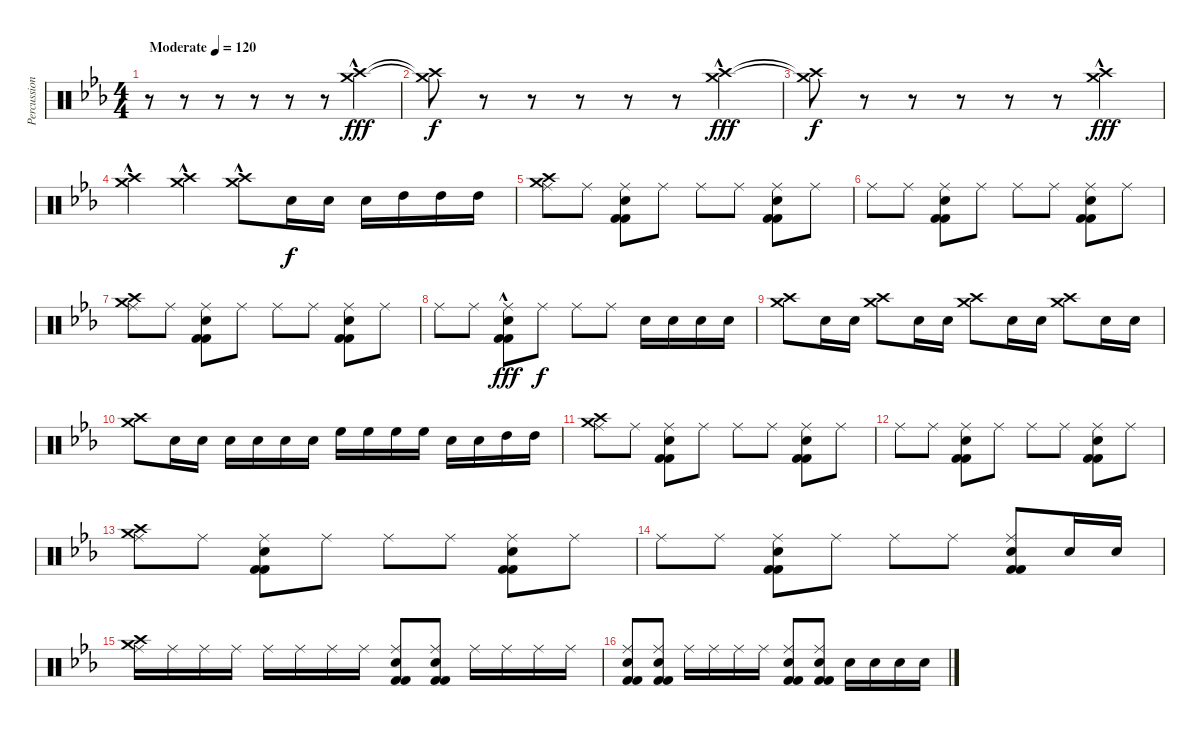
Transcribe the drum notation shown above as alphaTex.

\track ("Percussion" "Percussion") {instrument percussion}
\staff {score}
\articulation defaults
\ts (4 4)
\tempo (120 "Moderate")
\clef neutral
\ks eb
r.8{dy fff} r.8 r.8 r.8 r.8 r.8 ("Crash high (hit)"{hac} "Crash medium (hit)").4 |
("Crash high (hit)"{t} "Crash medium (hit)"{t}).8{dy f} r.8 r.8 r.8 r.8 r.8 ("Crash high (hit)"{hac} "Crash medium (hit)"{hac}).4{dy fff} |
("Crash high (hit)"{t} "Crash medium (hit)"{t}).8{dy f} r.8 r.8 r.8 r.8 r.8 ("Crash high (hit)"{hac} "Crash medium (hit)"{hac}).4{dy fff} |
("Crash high (hit)"{hac} "Crash medium (hit)"{hac}).4 ("Crash high (hit)"{hac} "Crash medium (hit)"{hac}).4 ("Crash high (hit)"{hac} "Crash medium (hit)"{hac}).8 "Electric Snare (hit)".16{dy f} "Electric Snare (hit)".16 "Electric Snare (hit)".16 "High Tom (hit)".16 "High Tom (hit)".16 "High Tom (hit)".16 |
("Crash high (hit)" "Crash medium (hit)" "Ride (middle)").8 "Ride (middle)".8 ("Ride (middle)" "Electric Snare (hit)" "Kick (hit) 2" "Kick (hit) 2").8 "Ride (middle)".8 "Ride (middle)".8 "Ride (middle)".8 ("Ride (middle)" "Electric Snare (hit)" "Kick (hit) 2" "Kick (hit) 2").8 "Ride (middle)".8 |
"Ride (middle)".8 "Ride (middle)".8 ("Ride (middle)" "Electric Snare (hit)" "Kick (hit) 2" "Kick (hit) 2").8 "Ride (middle)".8 "Ride (middle)".8 "Ride (middle)".8 ("Ride (middle)" "Electric Snare (hit)" "Kick (hit) 2" "Kick (hit) 2").8 "Ride (middle)".8 |
("Crash high (hit)" "Crash medium (hit)" "Ride (middle)").8 "Ride (middle)".8 ("Ride (middle)" "Electric Snare (hit)" "Kick (hit) 2" "Kick (hit) 2").8 "Ride (middle)".8 "Ride (middle)".8 "Ride (middle)".8 ("Ride (middle)" "Electric Snare (hit)" "Kick (hit) 2" "Kick (hit) 2").8 "Ride (middle)".8 |
"Ride (middle)".8 "Ride (middle)".8 ("Ride (middle)" "Electric Snare (hit)" "Kick (hit) 2"{hac} "Kick (hit) 2").8{dy fff} "Ride (middle)".8{dy f} "Ride (middle)".8 "Ride (middle)".8 "Electric Snare (hit)".16 "Electric Snare (hit)".16 "Electric Snare (hit)".16 "Electric Snare (hit)".16 |
("Crash high (hit)" "Crash medium (hit)").8 "Electric Snare (hit)".16 "Electric Snare (hit)".16 ("Crash high (hit)" "Crash medium (hit)").8 "Electric Snare (hit)".16 "Electric Snare (hit)".16 ("Crash high (hit)" "Crash medium (hit)").8 "Electric Snare (hit)".16 "Electric Snare (hit)".16 ("Crash high (hit)" "Crash medium (hit)").8 "Electric Snare (hit)".16 "Electric Snare (hit)".16 |
("Crash high (hit)" "Crash medium (hit)").8 "Electric Snare (hit)".16 "Electric Snare (hit)".16 "Electric Snare (hit)".16 "Electric Snare (hit)".16 "Electric Snare (hit)".16 "Electric Snare (hit)".16 "High Floor Tom (hit)".16 "High Floor Tom (hit)".16 "High Floor Tom (hit)".16 "High Floor Tom (hit)".16 "Electric Snare (hit)".16 "Electric Snare (hit)".16 "High Tom (hit)".16 "High Tom (hit)".16 |
("Crash high (hit)" "Crash medium (hit)" "Ride (middle)").8 "Ride (middle)".8 ("Ride (middle)" "Electric Snare (hit)" "Kick (hit) 2" "Kick (hit) 2").8 "Ride (middle)".8 "Ride (middle)".8 "Ride (middle)".8 ("Ride (middle)" "Electric Snare (hit)" "Kick (hit) 2" "Kick (hit) 2").8 "Ride (middle)".8 |
"Ride (middle)".8 "Ride (middle)".8 ("Ride (middle)" "Electric Snare (hit)" "Kick (hit) 2" "Kick (hit) 2").8 "Ride (middle)".8 "Ride (middle)".8 "Ride (middle)".8 ("Ride (middle)" "Electric Snare (hit)" "Kick (hit) 2" "Kick (hit) 2").8 "Ride (middle)".8 |
("Crash high (hit)" "Crash medium (hit)" "Ride (middle)").8 "Ride (middle)".8 ("Ride (middle)" "Electric Snare (hit)" "Kick (hit) 2" "Kick (hit) 2").8 "Ride (middle)".8 "Ride (middle)".8 "Ride (middle)".8 ("Ride (middle)" "Electric Snare (hit)" "Kick (hit) 2" "Kick (hit) 2").8 "Ride (middle)".8 |
"Ride (middle)".8 "Ride (middle)".8 ("Ride (middle)" "Electric Snare (hit)" "Kick (hit) 2" "Kick (hit) 2").8 "Ride (middle)".8 "Ride (middle)".8 "Ride (middle)".8 ("Ride (middle)" "Electric Snare (hit)" "Kick (hit) 2" "Kick (hit) 2").8 "Electric Snare (hit)".16 "Electric Snare (hit)".16 |
("Crash high (hit)" "Crash medium (hit)" "Ride (middle)").16 "Ride (middle)".16 "Ride (middle)".16 "Ride (middle)".16 "Ride (middle)".16 "Ride (middle)".16 "Ride (middle)".16 "Ride (middle)".16 ("Ride (middle)" "Electric Snare (hit)" "Kick (hit) 2" "Kick (hit) 2").8 ("Ride (middle)" "Electric Snare (hit)" "Kick (hit) 2" "Kick (hit) 2").8 "Ride (middle)".16 "Ride (middle)".16 "Ride (middle)".16 "Ride (middle)".16 |
("Ride (middle)" "Electric Snare (hit)" "Kick (hit) 2" "Kick (hit) 2").8 ("Ride (middle)" "Electric Snare (hit)" "Kick (hit) 2" "Kick (hit) 2").8 "Ride (middle)".16 "Ride (middle)".16 "Ride (middle)".16 "Ride (middle)".16 ("Ride (middle)" "Electric Snare (hit)" "Kick (hit) 2" "Kick (hit) 2").8 ("Ride (middle)" "Electric Snare (hit)" "Kick (hit) 2" "Kick (hit) 2").8 "Electric Snare (hit)".16 "Electric Snare (hit)".16 "Electric Snare (hit)".16 "Electric Snare (hit)".16
